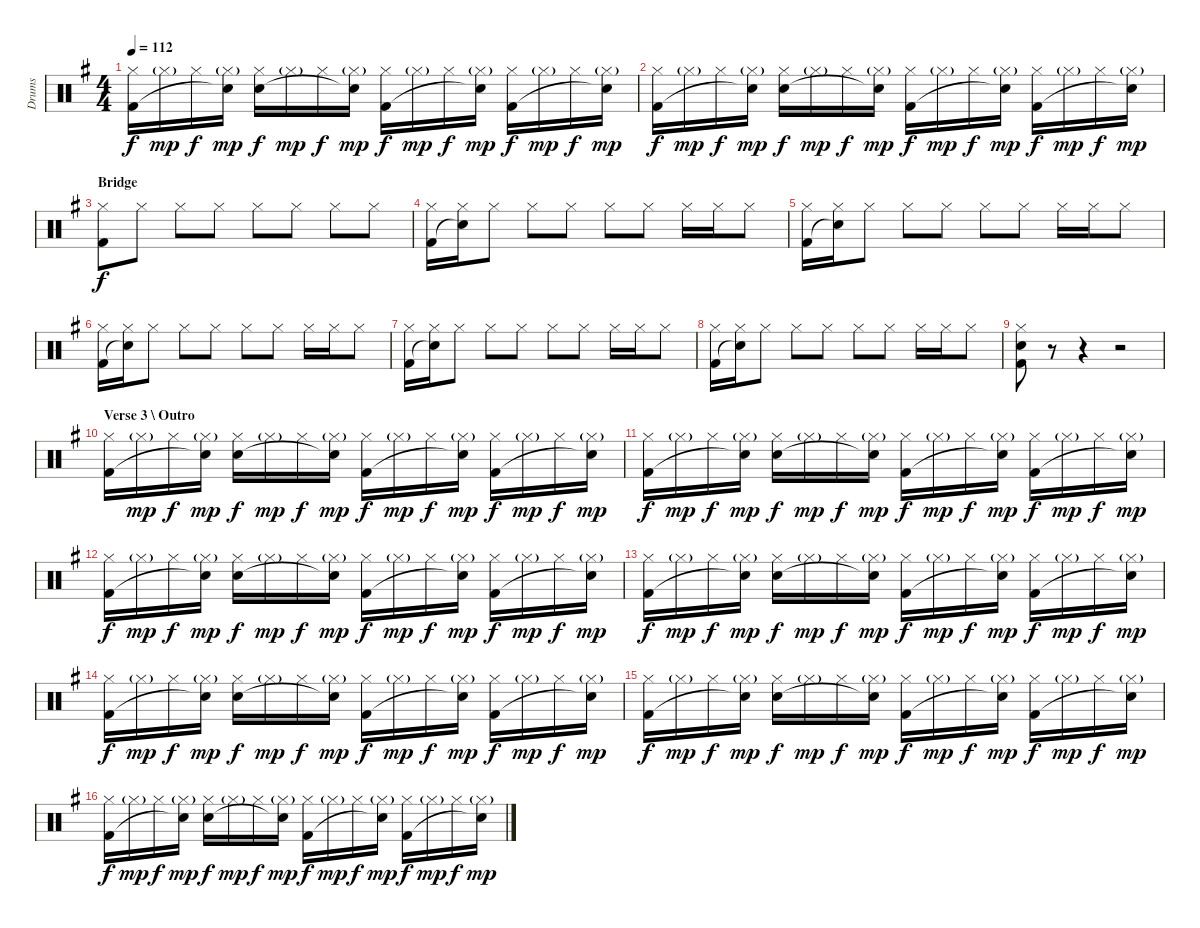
\track ("Drums" "Drums") {instrument percussion}
\staff {score}
\articulation defaults
\ts (4 4)
\tempo 112
\clef neutral
\ks g
("Hi-Hat (closed)" "Kick (hit) 2").16{dy f} "Hi-Hat (closed)"{g}.16{dy mp} "Hi-Hat (closed)".16{dy f} ("Hi-Hat (closed)"{g} "Snare (hit)"{t}).16{dy mp} ("Hi-Hat (closed)" "Electric Snare (hit)").16{dy f} "Hi-Hat (closed)"{g}.16{dy mp} "Hi-Hat (closed)".16{dy f} ("Hi-Hat (closed)"{g} "Snare (hit)"{t}).16{dy mp} ("Hi-Hat (closed)" "Kick (hit) 2").16{dy f} "Hi-Hat (closed)"{g}.16{dy mp} "Hi-Hat (closed)".16{dy f} ("Hi-Hat (closed)"{g} "Snare (hit)"{t}).16{dy mp} ("Hi-Hat (closed)" "Kick (hit) 2").16{dy f} "Hi-Hat (closed)"{g}.16{dy mp} "Hi-Hat (closed)".16{dy f} ("Hi-Hat (closed)"{g} "Snare (hit)"{t}).16{dy mp} |
("Hi-Hat (closed)" "Kick (hit) 2").16{dy f} "Hi-Hat (closed)"{g}.16{dy mp} "Hi-Hat (closed)".16{dy f} ("Hi-Hat (closed)"{g} "Snare (hit)"{t}).16{dy mp} ("Hi-Hat (closed)" "Electric Snare (hit)").16{dy f} "Hi-Hat (closed)"{g}.16{dy mp} "Hi-Hat (closed)".16{dy f} ("Hi-Hat (closed)"{g} "Snare (hit)"{t}).16{dy mp} ("Hi-Hat (closed)" "Kick (hit) 2").16{dy f} "Hi-Hat (closed)"{g}.16{dy mp} "Hi-Hat (closed)".16{dy f} ("Hi-Hat (closed)"{g} "Snare (hit)"{t}).16{dy mp} ("Hi-Hat (closed)" "Kick (hit) 2").16{dy f} "Hi-Hat (closed)"{g}.16{dy mp} "Hi-Hat (closed)".16{dy f} ("Hi-Hat (closed)"{g} "Snare (hit)"{t}).16{dy mp} |
\section ("" "Bridge")
("Hi-Hat (closed)" "Kick (hit) 2").8{dy f} "Hi-Hat (closed)".8 "Hi-Hat (closed)".8 "Hi-Hat (closed)".8 "Hi-Hat (closed)".8 "Hi-Hat (closed)".8 "Hi-Hat (closed)".8 "Hi-Hat (closed)".8 |
("Hi-Hat (closed)" "Kick (hit) 2").16 ("Hi-Hat (closed)" "Snare (hit)"{t}).16 "Hi-Hat (closed)".8 "Hi-Hat (closed)".8 "Hi-Hat (closed)".8 "Hi-Hat (closed)".8 "Hi-Hat (closed)".8 "Hi-Hat (closed)".16 "Hi-Hat (closed)".16 "Hi-Hat (closed)".8 |
("Hi-Hat (closed)" "Kick (hit) 2").16 ("Hi-Hat (closed)" "Snare (hit)"{t}).16 "Hi-Hat (closed)".8 "Hi-Hat (closed)".8 "Hi-Hat (closed)".8 "Hi-Hat (closed)".8 "Hi-Hat (closed)".8 "Hi-Hat (closed)".16 "Hi-Hat (closed)".16 "Hi-Hat (closed)".8 |
("Hi-Hat (closed)" "Kick (hit) 2").16 ("Hi-Hat (closed)" "Snare (hit)"{t}).16 "Hi-Hat (closed)".8 "Hi-Hat (closed)".8 "Hi-Hat (closed)".8 "Hi-Hat (closed)".8 "Hi-Hat (closed)".8 "Hi-Hat (closed)".16 "Hi-Hat (closed)".16 "Hi-Hat (closed)".8 |
("Hi-Hat (closed)" "Kick (hit) 2").16 ("Hi-Hat (closed)" "Snare (hit)"{t}).16 "Hi-Hat (closed)".8 "Hi-Hat (closed)".8 "Hi-Hat (closed)".8 "Hi-Hat (closed)".8 "Hi-Hat (closed)".8 "Hi-Hat (closed)".16 "Hi-Hat (closed)".16 "Hi-Hat (closed)".8 |
("Hi-Hat (closed)" "Kick (hit) 2").16 ("Hi-Hat (closed)" "Snare (hit)"{t}).16 "Hi-Hat (closed)".8 "Hi-Hat (closed)".8 "Hi-Hat (closed)".8 "Hi-Hat (closed)".8 "Hi-Hat (closed)".8 "Hi-Hat (closed)".16 "Hi-Hat (closed)".16 "Hi-Hat (closed)".8 |
("Hi-Hat (closed)" "Electric Snare (hit)" "Kick (hit) 2").8 r.8 r.4 r.2 |
\section ("" "Verse 3 \\ Outro")
("Hi-Hat (closed)" "Kick (hit) 2").16 "Hi-Hat (closed)"{g}.16{dy mp} "Hi-Hat (closed)".16{dy f} ("Hi-Hat (closed)"{g} "Snare (hit)"{t}).16{dy mp} ("Hi-Hat (closed)" "Electric Snare (hit)").16{dy f} "Hi-Hat (closed)"{g}.16{dy mp} "Hi-Hat (closed)".16{dy f} ("Hi-Hat (closed)"{g} "Snare (hit)"{t}).16{dy mp} ("Hi-Hat (closed)" "Kick (hit) 2").16{dy f} "Hi-Hat (closed)"{g}.16{dy mp} "Hi-Hat (closed)".16{dy f} ("Hi-Hat (closed)"{g} "Snare (hit)"{t}).16{dy mp} ("Hi-Hat (closed)" "Kick (hit) 2").16{dy f} "Hi-Hat (closed)"{g}.16{dy mp} "Hi-Hat (closed)".16{dy f} ("Hi-Hat (closed)"{g} "Snare (hit)"{t}).16{dy mp} |
("Hi-Hat (closed)" "Kick (hit) 2").16{dy f} "Hi-Hat (closed)"{g}.16{dy mp} "Hi-Hat (closed)".16{dy f} ("Hi-Hat (closed)"{g} "Snare (hit)"{t}).16{dy mp} ("Hi-Hat (closed)" "Electric Snare (hit)").16{dy f} "Hi-Hat (closed)"{g}.16{dy mp} "Hi-Hat (closed)".16{dy f} ("Hi-Hat (closed)"{g} "Snare (hit)"{t}).16{dy mp} ("Hi-Hat (closed)" "Kick (hit) 2").16{dy f} "Hi-Hat (closed)"{g}.16{dy mp} "Hi-Hat (closed)".16{dy f} ("Hi-Hat (closed)"{g} "Snare (hit)"{t}).16{dy mp} ("Hi-Hat (closed)" "Kick (hit) 2").16{dy f} "Hi-Hat (closed)"{g}.16{dy mp} "Hi-Hat (closed)".16{dy f} ("Hi-Hat (closed)"{g} "Snare (hit)"{t}).16{dy mp} |
("Hi-Hat (closed)" "Kick (hit) 2").16{dy f} "Hi-Hat (closed)"{g}.16{dy mp} "Hi-Hat (closed)".16{dy f} ("Hi-Hat (closed)"{g} "Snare (hit)"{t}).16{dy mp} ("Hi-Hat (closed)" "Electric Snare (hit)").16{dy f} "Hi-Hat (closed)"{g}.16{dy mp} "Hi-Hat (closed)".16{dy f} ("Hi-Hat (closed)"{g} "Snare (hit)"{t}).16{dy mp} ("Hi-Hat (closed)" "Kick (hit) 2").16{dy f} "Hi-Hat (closed)"{g}.16{dy mp} "Hi-Hat (closed)".16{dy f} ("Hi-Hat (closed)"{g} "Snare (hit)"{t}).16{dy mp} ("Hi-Hat (closed)" "Kick (hit) 2").16{dy f} "Hi-Hat (closed)"{g}.16{dy mp} "Hi-Hat (closed)".16{dy f} ("Hi-Hat (closed)"{g} "Snare (hit)"{t}).16{dy mp} |
("Hi-Hat (closed)" "Kick (hit) 2").16{dy f} "Hi-Hat (closed)"{g}.16{dy mp} "Hi-Hat (closed)".16{dy f} ("Hi-Hat (closed)"{g} "Snare (hit)"{t}).16{dy mp} ("Hi-Hat (closed)" "Electric Snare (hit)").16{dy f} "Hi-Hat (closed)"{g}.16{dy mp} "Hi-Hat (closed)".16{dy f} ("Hi-Hat (closed)"{g} "Snare (hit)"{t}).16{dy mp} ("Hi-Hat (closed)" "Kick (hit) 2").16{dy f} "Hi-Hat (closed)"{g}.16{dy mp} "Hi-Hat (closed)".16{dy f} ("Hi-Hat (closed)"{g} "Snare (hit)"{t}).16{dy mp} ("Hi-Hat (closed)" "Kick (hit) 2").16{dy f} "Hi-Hat (closed)"{g}.16{dy mp} "Hi-Hat (closed)".16{dy f} ("Hi-Hat (closed)"{g} "Snare (hit)"{t}).16{dy mp} |
("Hi-Hat (closed)" "Kick (hit) 2").16{dy f} "Hi-Hat (closed)"{g}.16{dy mp} "Hi-Hat (closed)".16{dy f} ("Hi-Hat (closed)"{g} "Snare (hit)"{t}).16{dy mp} ("Hi-Hat (closed)" "Electric Snare (hit)").16{dy f} "Hi-Hat (closed)"{g}.16{dy mp} "Hi-Hat (closed)".16{dy f} ("Hi-Hat (closed)"{g} "Snare (hit)"{t}).16{dy mp} ("Hi-Hat (closed)" "Kick (hit) 2").16{dy f} "Hi-Hat (closed)"{g}.16{dy mp} "Hi-Hat (closed)".16{dy f} ("Hi-Hat (closed)"{g} "Snare (hit)"{t}).16{dy mp} ("Hi-Hat (closed)" "Kick (hit) 2").16{dy f} "Hi-Hat (closed)"{g}.16{dy mp} "Hi-Hat (closed)".16{dy f} ("Hi-Hat (closed)"{g} "Snare (hit)"{t}).16{dy mp} |
("Hi-Hat (closed)" "Kick (hit) 2").16{dy f} "Hi-Hat (closed)"{g}.16{dy mp} "Hi-Hat (closed)".16{dy f} ("Hi-Hat (closed)"{g} "Snare (hit)"{t}).16{dy mp} ("Hi-Hat (closed)" "Electric Snare (hit)").16{dy f} "Hi-Hat (closed)"{g}.16{dy mp} "Hi-Hat (closed)".16{dy f} ("Hi-Hat (closed)"{g} "Snare (hit)"{t}).16{dy mp} ("Hi-Hat (closed)" "Kick (hit) 2").16{dy f} "Hi-Hat (closed)"{g}.16{dy mp} "Hi-Hat (closed)".16{dy f} ("Hi-Hat (closed)"{g} "Snare (hit)"{t}).16{dy mp} ("Hi-Hat (closed)" "Kick (hit) 2").16{dy f} "Hi-Hat (closed)"{g}.16{dy mp} "Hi-Hat (closed)".16{dy f} ("Hi-Hat (closed)"{g} "Snare (hit)"{t}).16{dy mp} |
("Hi-Hat (closed)" "Kick (hit) 2").16{dy f} "Hi-Hat (closed)"{g}.16{dy mp} "Hi-Hat (closed)".16{dy f} ("Hi-Hat (closed)"{g} "Snare (hit)"{t}).16{dy mp} ("Hi-Hat (closed)" "Electric Snare (hit)").16{dy f} "Hi-Hat (closed)"{g}.16{dy mp} "Hi-Hat (closed)".16{dy f} ("Hi-Hat (closed)"{g} "Snare (hit)"{t}).16{dy mp} ("Hi-Hat (closed)" "Kick (hit) 2").16{dy f} "Hi-Hat (closed)"{g}.16{dy mp} "Hi-Hat (closed)".16{dy f} ("Hi-Hat (closed)"{g} "Snare (hit)"{t}).16{dy mp} ("Hi-Hat (closed)" "Kick (hit) 2").16{dy f} "Hi-Hat (closed)"{g}.16{dy mp} "Hi-Hat (closed)".16{dy f} ("Hi-Hat (closed)"{g} "Snare (hit)"{t}).16{dy mp}
